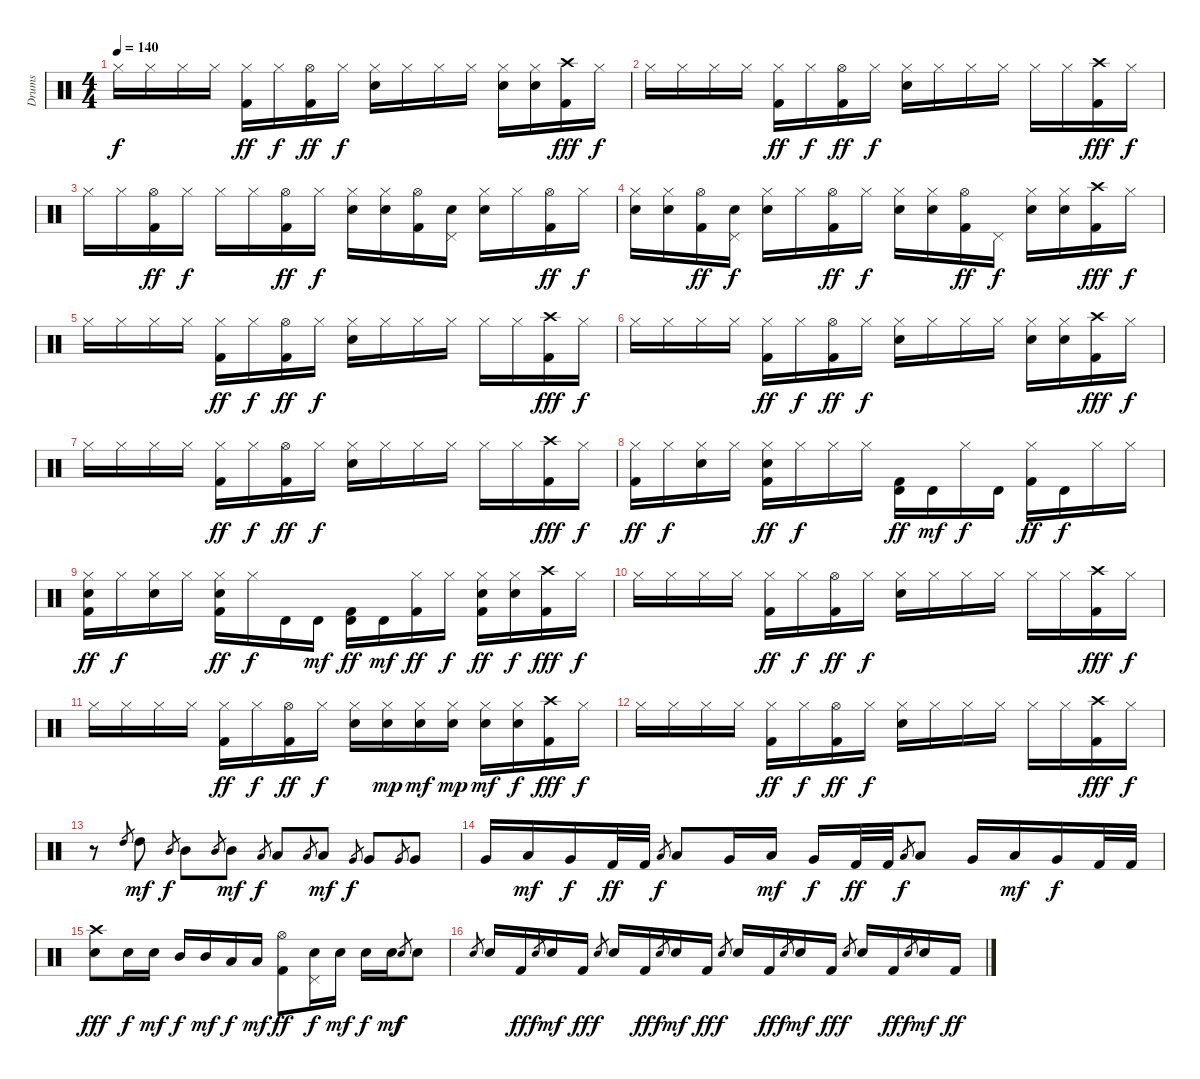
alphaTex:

\track ("Drums" "Drums") {instrument percussion}
\staff {score}
\articulation defaults
\ts (4 4)
\tempo 140
\clef neutral
\ks c "Hi-Hat (closed)".16{dy f} "Hi-Hat (closed)".16 "Hi-Hat (closed)".16 "Hi-Hat (closed)".16
("Hi-Hat (closed)" "Kick (hit) 2").16{dy ff} "Hi-Hat (closed)".16{dy f} ("Hi-Hat (open)" "Kick (hit) 2").16{dy ff} "Hi-Hat (closed)".16{dy f} ("Hi-Hat (closed)" "Snare (hit) 2").16 "Hi-Hat (closed)".16 "Hi-Hat (closed)".16 "Hi-Hat (closed)".16 ("Hi-Hat (closed)" "Snare (hit) 2").16 ("Hi-Hat (closed)" "Snare (hit) 2").16 ("Kick (hit) 2" "Crash high (hit)").16{dy fff} "Hi-Hat (closed)".16{dy f} |
"Hi-Hat (closed)".16 "Hi-Hat (closed)".16 "Hi-Hat (closed)".16 "Hi-Hat (closed)".16 ("Hi-Hat (closed)" "Kick (hit) 2").16{dy ff} "Hi-Hat (closed)".16{dy f} ("Hi-Hat (open)" "Kick (hit) 2").16{dy ff} "Hi-Hat (closed)".16{dy f} ("Hi-Hat (closed)" "Snare (hit) 2").16 "Hi-Hat (closed)".16 "Hi-Hat (closed)".16 "Hi-Hat (closed)".16 "Hi-Hat (closed)".16 "Hi-Hat (closed)".16 ("Kick (hit) 2" "Crash high (hit)").16{dy fff} "Hi-Hat (closed)".16{dy f} |
"Hi-Hat (closed)".16 "Hi-Hat (closed)".16 ("Hi-Hat (open)" "Kick (hit) 2").16{dy ff} "Hi-Hat (closed)".16{dy f} "Hi-Hat (closed)".16 "Hi-Hat (closed)".16 ("Hi-Hat (open)" "Kick (hit) 2").16{dy ff} "Hi-Hat (closed)".16{dy f} ("Hi-Hat (closed)" "Snare (hit) 2").16 ("Hi-Hat (closed)" "Snare (hit) 2").16 ("Hi-Hat (open)" "Kick (hit) 2").16 ("Pedal Hi-Hat (hit)" "Snare (hit) 2").16 ("Hi-Hat (closed)" "Snare (hit) 2").16 "Hi-Hat (closed)".16 ("Hi-Hat (open)" "Kick (hit) 2").16{dy ff} "Hi-Hat (closed)".16{dy f} |
("Hi-Hat (closed)" "Snare (hit) 2").16 ("Hi-Hat (closed)" "Snare (hit) 2").16 ("Hi-Hat (open)" "Kick (hit) 2").16{dy ff} ("Pedal Hi-Hat (hit)" "Snare (hit) 2").16{dy f} ("Hi-Hat (closed)" "Snare (hit) 2").16 "Hi-Hat (closed)".16 ("Hi-Hat (open)" "Kick (hit) 2").16{dy ff} "Hi-Hat (closed)".16{dy f} ("Hi-Hat (closed)" "Snare (hit) 2").16 ("Hi-Hat (closed)" "Snare (hit) 2").16 ("Hi-Hat (open)" "Kick (hit) 2").16{dy ff} "Pedal Hi-Hat (hit)".16{dy f} ("Hi-Hat (closed)" "Snare (hit) 2").16 ("Hi-Hat (closed)" "Snare (hit) 2").16 ("Kick (hit) 2" "Crash high (hit)").16{dy fff} "Hi-Hat (closed)".16{dy f} |
"Hi-Hat (closed)".16 "Hi-Hat (closed)".16 "Hi-Hat (closed)".16 "Hi-Hat (closed)".16 ("Hi-Hat (closed)" "Kick (hit) 2").16{dy ff} "Hi-Hat (closed)".16{dy f} ("Hi-Hat (open)" "Kick (hit) 2").16{dy ff} "Hi-Hat (closed)".16{dy f} ("Hi-Hat (closed)" "Snare (hit) 2").16 "Hi-Hat (closed)".16 "Hi-Hat (closed)".16 "Hi-Hat (closed)".16 "Hi-Hat (closed)".16 "Hi-Hat (closed)".16 ("Kick (hit) 2" "Crash high (hit)").16{dy fff} "Hi-Hat (closed)".16{dy f} |
"Hi-Hat (closed)".16 "Hi-Hat (closed)".16 "Hi-Hat (closed)".16 "Hi-Hat (closed)".16 ("Hi-Hat (closed)" "Kick (hit) 2").16{dy ff} "Hi-Hat (closed)".16{dy f} ("Hi-Hat (open)" "Kick (hit) 2").16{dy ff} "Hi-Hat (closed)".16{dy f} ("Hi-Hat (closed)" "Snare (hit) 2").16 "Hi-Hat (closed)".16 "Hi-Hat (closed)".16 "Hi-Hat (closed)".16 ("Hi-Hat (closed)" "Snare (hit) 2").16 ("Hi-Hat (closed)" "Snare (hit) 2").16 ("Kick (hit) 2" "Crash high (hit)").16{dy fff} "Hi-Hat (closed)".16{dy f} |
"Hi-Hat (closed)".16 "Hi-Hat (closed)".16 "Hi-Hat (closed)".16 "Hi-Hat (closed)".16 ("Hi-Hat (closed)" "Kick (hit) 2").16{dy ff} "Hi-Hat (closed)".16{dy f} ("Hi-Hat (open)" "Kick (hit) 2").16{dy ff} "Hi-Hat (closed)".16{dy f} ("Hi-Hat (closed)" "Snare (hit) 2").16 "Hi-Hat (closed)".16 "Hi-Hat (closed)".16 "Hi-Hat (closed)".16 "Hi-Hat (closed)".16 "Hi-Hat (closed)".16 ("Kick (hit) 2" "Crash high (hit)").16{dy fff} "Hi-Hat (closed)".16{dy f} |
("Hi-Hat (closed)" "Kick (hit) 2").16{dy ff} "Hi-Hat (closed)".16{dy f} ("Hi-Hat (closed)" "Snare (hit) 2").16 "Hi-Hat (closed)".16 ("Hi-Hat (closed)" "Snare (hit) 2" "Kick (hit) 2").16{dy ff} "Hi-Hat (closed)".16{dy f} "Hi-Hat (closed)".16 "Hi-Hat (closed)".16 ("Timbale high (hit)" "Kick (hit) 2").16{dy ff} "Timbale high (hit)".16{dy mf} "Hi-Hat (closed)".16{dy f} "Timbale high (hit)".16 ("Hi-Hat (closed)" "Kick (hit) 2").16{dy ff} "Timbale high (hit)".16{dy f} "Hi-Hat (closed)".16 "Hi-Hat (closed)".16 |
("Hi-Hat (closed)" "Snare (hit) 2" "Kick (hit) 2").16{dy ff} "Hi-Hat (closed)".16{dy f} ("Hi-Hat (closed)" "Snare (hit) 2").16 "Hi-Hat (closed)".16 ("Hi-Hat (closed)" "Snare (hit) 2" "Kick (hit) 2").16{dy ff} "Hi-Hat (closed)".16{dy f} "Timbale high (hit)".16 "Timbale high (hit)".16{dy mf} ("Timbale high (hit)" "Kick (hit) 2").16{dy ff} "Timbale high (hit)".16{dy mf} ("Hi-Hat (closed)" "Kick (hit) 2").16{dy ff} "Hi-Hat (closed)".16{dy f} ("Hi-Hat (closed)" "Snare (hit) 2" "Kick (hit) 2").16{dy ff} ("Hi-Hat (closed)" "Snare (hit) 2").16{dy f} ("Kick (hit) 2" "Crash high (hit)").16{dy fff} "Hi-Hat (closed)".16{dy f} |
"Hi-Hat (closed)".16 "Hi-Hat (closed)".16 "Hi-Hat (closed)".16 "Hi-Hat (closed)".16 ("Hi-Hat (closed)" "Kick (hit) 2").16{dy ff} "Hi-Hat (closed)".16{dy f} ("Hi-Hat (open)" "Kick (hit) 2").16{dy ff} "Hi-Hat (closed)".16{dy f} ("Hi-Hat (closed)" "Snare (hit) 2").16 "Hi-Hat (closed)".16 "Hi-Hat (closed)".16 "Hi-Hat (closed)".16 "Hi-Hat (closed)".16 "Hi-Hat (closed)".16 ("Kick (hit) 2" "Crash high (hit)").16{dy fff} "Hi-Hat (closed)".16{dy f} |
"Hi-Hat (closed)".16 "Hi-Hat (closed)".16 "Hi-Hat (closed)".16 "Hi-Hat (closed)".16 ("Hi-Hat (closed)" "Kick (hit) 2").16{dy ff} "Hi-Hat (closed)".16{dy f} ("Hi-Hat (open)" "Kick (hit) 2").16{dy ff} "Hi-Hat (closed)".16{dy f} ("Hi-Hat (closed)" "Snare (hit) 2").16 ("Hi-Hat (closed)" "Snare (hit) 2").16{dy mp} ("Hi-Hat (closed)" "Snare (hit) 2").16{dy mf} ("Hi-Hat (closed)" "Snare (hit) 2").16{dy mp} ("Hi-Hat (closed)" "Snare (hit) 2").16{dy mf} ("Hi-Hat (closed)" "Snare (hit) 2").16{dy f} ("Kick (hit) 2" "Crash high (hit)").16{dy fff} "Hi-Hat (closed)".16{dy f} |
"Hi-Hat (closed)".16 "Hi-Hat (closed)".16 "Hi-Hat (closed)".16 "Hi-Hat (closed)".16 ("Hi-Hat (closed)" "Kick (hit) 2").16{dy ff} "Hi-Hat (closed)".16{dy f} ("Hi-Hat (open)" "Kick (hit) 2").16{dy ff} "Hi-Hat (closed)".16{dy f} ("Hi-Hat (closed)" "Snare (hit) 2").16 "Hi-Hat (closed)".16 "Hi-Hat (closed)".16 "Hi-Hat (closed)".16 "Hi-Hat (closed)".16 "Hi-Hat (closed)".16 ("Kick (hit) 2" "Crash high (hit)").16{dy fff} "Hi-Hat (closed)".16{dy f} |
r.8 "High Tom (hit)".8{gr} "High Tom (hit)".8{dy mf} "Mid Tom (hit)".8{gr dy f} "Mid Tom (hit)".8 "Mid Tom (hit)".8{gr} "Mid Tom (hit)".8{dy mf} "Low Tom (hit)".8{gr dy f} "Low Tom (hit)".8 "Low Tom (hit)".8{gr} "Low Tom (hit)".8{dy mf} "Very Low Tom (hit)".8{gr dy f} "Very Low Tom (hit)".8 "Very Low Tom (hit)".8{gr} "Very Low Tom (hit)".8 |
"Very Low Tom (hit)".16 "Low Tom (hit)".16{dy mf} "Very Low Tom (hit)".16{dy f} "Kick (hit) 2".32{dy ff} "Kick (hit) 2".32 "Low Tom (hit)".8{gr dy f} "Low Tom (hit)".8 "Very Low Tom (hit)".16 "Low Tom (hit)".16{dy mf} "Very Low Tom (hit)".16{dy f} "Kick (hit) 2".32{dy ff} "Kick (hit) 2".32 "Low Tom (hit)".8{gr dy f} "Low Tom (hit)".8 "Very Low Tom (hit)".16 "Low Tom (hit)".16{dy mf} "Very Low Tom (hit)".16{dy f} "Kick (hit) 2".32 "Kick (hit) 2".32 |
("Crash high (hit)" "Snare (hit) 2").8{dy fff} "Snare (hit) 2".16{dy f} "Snare (hit) 2".16{dy mf} "Mid Tom (hit)".16{dy f} "Mid Tom (hit)".16{dy mf} "Low Tom (hit)".16{dy f} "Low Tom (hit)".16{dy mf} ("Hi-Hat (open)" "Kick (hit) 2").8{dy ff} ("Pedal Hi-Hat (hit)" "Snare (hit) 2").16{dy f} "Snare (hit) 2".16{dy mf} "Snare (hit) 2".16{dy f} "Snare (hit) 2".16{dy mf} "Snare (hit) 2".8{gr dy f} "Snare (hit) 2".8 |
"Snare (hit) 2".8{gr} "Snare (hit) 2".16 "Kick (hit) 2".16{dy ff} "Snare (hit) 2".8{gr dy f} "Snare (hit) 2".16{dy mf} "Kick (hit) 2".16{dy ff} "Snare (hit) 2".8{gr dy f} "Snare (hit) 2".16 "Kick (hit) 2".16{dy ff} "Snare (hit) 2".8{gr dy f} "Snare (hit) 2".16{dy mf} "Kick (hit) 2".16{dy ff} "Snare (hit) 2".8{gr dy f} "Snare (hit) 2".16 "Kick (hit) 2".16{dy ff} "Snare (hit) 2".8{gr dy f} "Snare (hit) 2".16{dy mf} "Kick (hit) 2".16{dy ff} "Snare (hit) 2".8{gr dy f} "Snare (hit) 2".16 "Kick (hit) 2".16{dy ff} "Snare (hit) 2".8{gr dy f} "Snare (hit) 2".16{dy mf} "Kick (hit) 2".16{dy ff}
